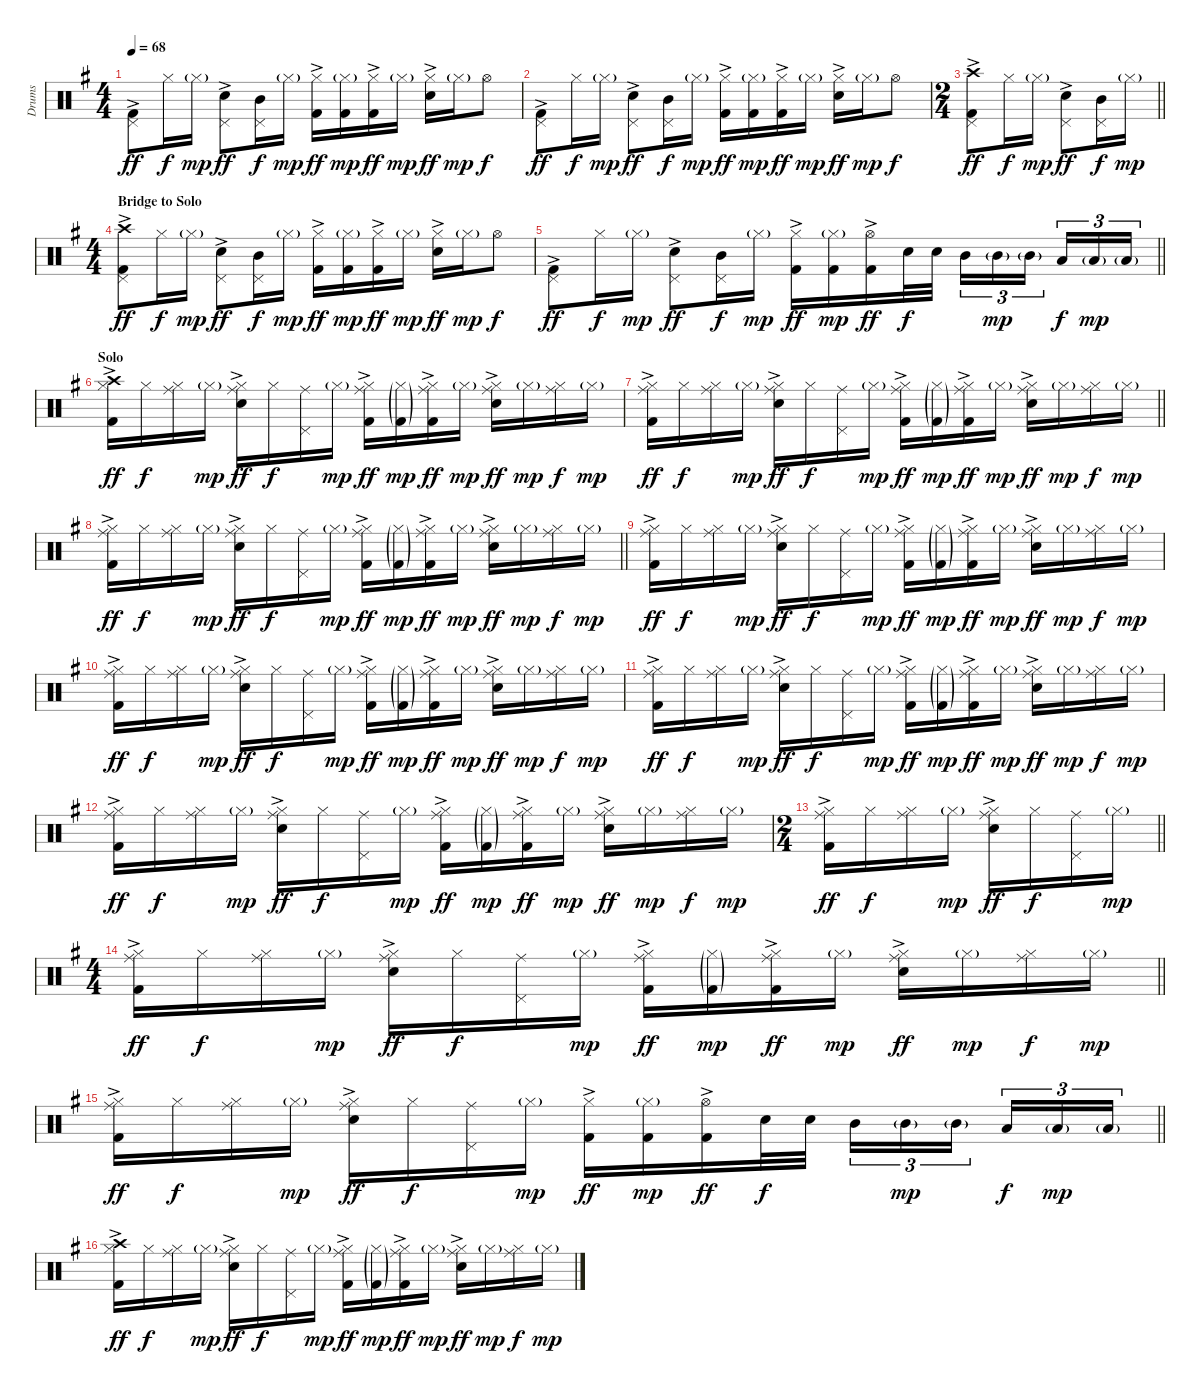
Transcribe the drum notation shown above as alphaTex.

\track ("Drums" "Drums") {instrument percussion}
\staff {score}
\articulation defaults
\ts (4 4)
\tempo 68
\clef neutral
\ks g
("Pedal Hi-Hat (hit)" "Kick (hit) 2"{ac}).8{dy ff} "Hi-Hat (closed)".16{dy f} "Hi-Hat (closed)"{g}.16{dy mp} ("Pedal Hi-Hat (hit)" "Snare (hit) 2"{ac}).8{dy ff} ("Pedal Hi-Hat (hit)" "Mid Tom (hit)").16{dy f} "Hi-Hat (closed)"{g}.16{dy mp} ("Hi-Hat (closed)" "Kick (hit) 2"{ac}).16{dy ff} ("Hi-Hat (closed)"{g} "Kick (hit) 2").16{dy mp} ("Hi-Hat (closed)" "Kick (hit) 2"{ac}).16{dy ff} "Hi-Hat (closed)"{g}.16{dy mp} ("Hi-Hat (closed)" "Snare (hit) 2"{ac}).16{dy ff} "Hi-Hat (closed)"{g}.16{dy mp} "Hi-Hat (open)".8{dy f} |
("Pedal Hi-Hat (hit)" "Kick (hit) 2"{ac}).8{dy ff} "Hi-Hat (closed)".16{dy f} "Hi-Hat (closed)"{g}.16{dy mp} ("Pedal Hi-Hat (hit)" "Snare (hit) 2"{ac}).8{dy ff} ("Pedal Hi-Hat (hit)" "Mid Tom (hit)").16{dy f} "Hi-Hat (closed)"{g}.16{dy mp} ("Hi-Hat (closed)" "Kick (hit) 2"{ac}).16{dy ff} ("Hi-Hat (closed)"{g} "Kick (hit) 2").16{dy mp} ("Hi-Hat (closed)" "Kick (hit) 2"{ac}).16{dy ff} "Hi-Hat (closed)"{g}.16{dy mp} ("Hi-Hat (closed)" "Snare (hit) 2"{ac}).16{dy ff} "Hi-Hat (closed)"{g}.16{dy mp} "Hi-Hat (open)".8{dy f} |
\ts (2 4)
\barLineRight lightlight
("Pedal Hi-Hat (hit)" "Crash high (hit)" "Kick (hit) 2"{ac}).8{dy ff} "Hi-Hat (closed)".16{dy f} "Hi-Hat (closed)"{g}.16{dy mp} ("Pedal Hi-Hat (hit)" "Snare (hit) 2"{ac}).8{dy ff} ("Pedal Hi-Hat (hit)" "Mid Tom (hit)").16{dy f} "Hi-Hat (closed)"{g}.16{dy mp} |
\ts (4 4)
\section ("" "Bridge to Solo")
("Pedal Hi-Hat (hit)" "Crash high (hit)" "Kick (hit) 2"{ac}).8{dy ff} "Hi-Hat (closed)".16{dy f} "Hi-Hat (closed)"{g}.16{dy mp} ("Pedal Hi-Hat (hit)" "Snare (hit) 2"{ac}).8{dy ff} ("Pedal Hi-Hat (hit)" "Mid Tom (hit)").16{dy f} "Hi-Hat (closed)"{g}.16{dy mp} ("Hi-Hat (closed)" "Kick (hit) 2"{ac}).16{dy ff} ("Hi-Hat (closed)"{g} "Kick (hit) 2").16{dy mp} ("Hi-Hat (closed)" "Kick (hit) 2"{ac}).16{dy ff} "Hi-Hat (closed)"{g}.16{dy mp} ("Hi-Hat (closed)" "Snare (hit) 2"{ac}).16{dy ff} "Hi-Hat (closed)"{g}.16{dy mp} "Hi-Hat (open)".8{dy f} |
\barLineRight lightlight
("Pedal Hi-Hat (hit)" "Kick (hit) 2"{ac}).8{dy ff} "Hi-Hat (closed)".16{dy f} "Hi-Hat (closed)"{g}.16{dy mp} ("Pedal Hi-Hat (hit)" "Snare (hit) 2"{ac}).8{dy ff} ("Pedal Hi-Hat (hit)" "Mid Tom (hit)").16{dy f} "Hi-Hat (closed)"{g}.16{dy mp} ("Hi-Hat (closed)" "Kick (hit) 2"{ac}).16{dy ff} ("Hi-Hat (closed)"{g} "Kick (hit) 2").16{dy mp} ("Hi-Hat (open)" "Kick (hit) 2"{ac}).16{dy ff} "Snare (hit) 2".32{dy f} "Snare (hit) 2".32 "Mid Tom (hit)".16{tu (3 2)} "Mid Tom (hit)"{g}.16{tu (3 2) dy mp} "Mid Tom (hit)"{g}.16{tu (3 2) beam splitsecondary} "Low Tom (hit)".16{tu (3 2) dy f} "Low Tom (hit)"{g}.16{tu (3 2) dy mp} "Low Floor Tom (hit)"{g}.16{tu (3 2)} |
\section ("" "Solo")
("Hi-Hat (closed)" "Crash high (hit)" "Kick (hit) 2"{ac}).16{dy ff} "Hi-Hat (closed)".16{dy f} ("Hi-Hat (closed)" "Ride (middle)").16 "Hi-Hat (closed)"{g}.16{dy mp} ("Hi-Hat (closed)" "Ride (middle)" "Snare (hit) 2"{ac}).16{dy ff} "Hi-Hat (closed)".16{dy f} ("Pedal Hi-Hat (hit)" "Ride (middle)").16 "Hi-Hat (closed)"{g}.16{dy mp} ("Hi-Hat (closed)" "Ride (middle)" "Kick (hit) 2"{ac}).16{dy ff} ("Hi-Hat (closed)"{g} "Kick (hit) 2"{g}).16{dy mp} ("Hi-Hat (closed)" "Ride (middle)" "Kick (hit) 2"{ac}).16{dy ff} "Hi-Hat (closed)"{g}.16{dy mp} ("Hi-Hat (closed)" "Ride (middle)" "Snare (hit) 2"{ac}).16{dy ff} "Hi-Hat (closed)"{g}.16{dy mp} ("Hi-Hat (closed)" "Ride (middle)").16{dy f} "Hi-Hat (closed)"{g}.16{dy mp} |
\barLineRight lightlight
("Hi-Hat (closed)" "Ride (middle)" "Kick (hit) 2"{ac}).16{dy ff} "Hi-Hat (closed)".16{dy f} ("Hi-Hat (closed)" "Ride (middle)").16 "Hi-Hat (closed)"{g}.16{dy mp} ("Hi-Hat (closed)" "Ride (middle)" "Snare (hit) 2"{ac}).16{dy ff} "Hi-Hat (closed)".16{dy f} ("Pedal Hi-Hat (hit)" "Ride (middle)").16 "Hi-Hat (closed)"{g}.16{dy mp} ("Hi-Hat (closed)" "Ride (middle)" "Kick (hit) 2"{ac}).16{dy ff} ("Hi-Hat (closed)"{g} "Kick (hit) 2"{g}).16{dy mp} ("Hi-Hat (closed)" "Ride (middle)" "Kick (hit) 2"{ac}).16{dy ff} "Hi-Hat (closed)"{g}.16{dy mp} ("Hi-Hat (closed)" "Ride (middle)" "Snare (hit) 2"{ac}).16{dy ff} "Hi-Hat (closed)"{g}.16{dy mp} ("Hi-Hat (closed)" "Ride (middle)").16{dy f} "Hi-Hat (closed)"{g}.16{dy mp} |
\section ("" "")
\barLineRight lightlight
("Hi-Hat (closed)" "Ride (middle)" "Kick (hit) 2"{ac}).16{dy ff} "Hi-Hat (closed)".16{dy f} ("Hi-Hat (closed)" "Ride (middle)").16 "Hi-Hat (closed)"{g}.16{dy mp} ("Hi-Hat (closed)" "Ride (middle)" "Snare (hit) 2"{ac}).16{dy ff} "Hi-Hat (closed)".16{dy f} ("Pedal Hi-Hat (hit)" "Ride (middle)").16 "Hi-Hat (closed)"{g}.16{dy mp} ("Hi-Hat (closed)" "Ride (middle)" "Kick (hit) 2"{ac}).16{dy ff} ("Hi-Hat (closed)"{g} "Kick (hit) 2"{g}).16{dy mp} ("Hi-Hat (closed)" "Ride (middle)" "Kick (hit) 2"{ac}).16{dy ff} "Hi-Hat (closed)"{g}.16{dy mp} ("Hi-Hat (closed)" "Ride (middle)" "Snare (hit) 2"{ac}).16{dy ff} "Hi-Hat (closed)"{g}.16{dy mp} ("Hi-Hat (closed)" "Ride (middle)").16{dy f} "Hi-Hat (closed)"{g}.16{dy mp} |
\section ("" "")
("Hi-Hat (closed)" "Ride (middle)" "Kick (hit) 2"{ac}).16{dy ff} "Hi-Hat (closed)".16{dy f} ("Hi-Hat (closed)" "Ride (middle)").16 "Hi-Hat (closed)"{g}.16{dy mp} ("Hi-Hat (closed)" "Ride (middle)" "Snare (hit) 2"{ac}).16{dy ff} "Hi-Hat (closed)".16{dy f} ("Pedal Hi-Hat (hit)" "Ride (middle)").16 "Hi-Hat (closed)"{g}.16{dy mp} ("Hi-Hat (closed)" "Ride (middle)" "Kick (hit) 2"{ac}).16{dy ff} ("Hi-Hat (closed)"{g} "Kick (hit) 2"{g}).16{dy mp} ("Hi-Hat (closed)" "Ride (middle)" "Kick (hit) 2"{ac}).16{dy ff} "Hi-Hat (closed)"{g}.16{dy mp} ("Hi-Hat (closed)" "Ride (middle)" "Snare (hit) 2"{ac}).16{dy ff} "Hi-Hat (closed)"{g}.16{dy mp} ("Hi-Hat (closed)" "Ride (middle)").16{dy f} "Hi-Hat (closed)"{g}.16{dy mp} |
("Hi-Hat (closed)" "Ride (middle)" "Kick (hit) 2"{ac}).16{dy ff} "Hi-Hat (closed)".16{dy f} ("Hi-Hat (closed)" "Ride (middle)").16 "Hi-Hat (closed)"{g}.16{dy mp} ("Hi-Hat (closed)" "Ride (middle)" "Snare (hit) 2"{ac}).16{dy ff} "Hi-Hat (closed)".16{dy f} ("Pedal Hi-Hat (hit)" "Ride (middle)").16 "Hi-Hat (closed)"{g}.16{dy mp} ("Hi-Hat (closed)" "Ride (middle)" "Kick (hit) 2"{ac}).16{dy ff} ("Hi-Hat (closed)"{g} "Kick (hit) 2"{g}).16{dy mp} ("Hi-Hat (closed)" "Ride (middle)" "Kick (hit) 2"{ac}).16{dy ff} "Hi-Hat (closed)"{g}.16{dy mp} ("Hi-Hat (closed)" "Ride (middle)" "Snare (hit) 2"{ac}).16{dy ff} "Hi-Hat (closed)"{g}.16{dy mp} ("Hi-Hat (closed)" "Ride (middle)").16{dy f} "Hi-Hat (closed)"{g}.16{dy mp} |
("Hi-Hat (closed)" "Ride (middle)" "Kick (hit) 2"{ac}).16{dy ff} "Hi-Hat (closed)".16{dy f} ("Hi-Hat (closed)" "Ride (middle)").16 "Hi-Hat (closed)"{g}.16{dy mp} ("Hi-Hat (closed)" "Ride (middle)" "Snare (hit) 2"{ac}).16{dy ff} "Hi-Hat (closed)".16{dy f} ("Pedal Hi-Hat (hit)" "Ride (middle)").16 "Hi-Hat (closed)"{g}.16{dy mp} ("Hi-Hat (closed)" "Ride (middle)" "Kick (hit) 2"{ac}).16{dy ff} ("Hi-Hat (closed)"{g} "Kick (hit) 2"{g}).16{dy mp} ("Hi-Hat (closed)" "Ride (middle)" "Kick (hit) 2"{ac}).16{dy ff} "Hi-Hat (closed)"{g}.16{dy mp} ("Hi-Hat (closed)" "Ride (middle)" "Snare (hit) 2"{ac}).16{dy ff} "Hi-Hat (closed)"{g}.16{dy mp} ("Hi-Hat (closed)" "Ride (middle)").16{dy f} "Hi-Hat (closed)"{g}.16{dy mp} |
("Hi-Hat (closed)" "Ride (middle)" "Kick (hit) 2"{ac}).16{dy ff} "Hi-Hat (closed)".16{dy f} ("Hi-Hat (closed)" "Ride (middle)").16 "Hi-Hat (closed)"{g}.16{dy mp} ("Hi-Hat (closed)" "Ride (middle)" "Snare (hit) 2"{ac}).16{dy ff} "Hi-Hat (closed)".16{dy f} ("Pedal Hi-Hat (hit)" "Ride (middle)").16 "Hi-Hat (closed)"{g}.16{dy mp} ("Hi-Hat (closed)" "Ride (middle)" "Kick (hit) 2"{ac}).16{dy ff} ("Hi-Hat (closed)"{g} "Kick (hit) 2"{g}).16{dy mp} ("Hi-Hat (closed)" "Ride (middle)" "Kick (hit) 2"{ac}).16{dy ff} "Hi-Hat (closed)"{g}.16{dy mp} ("Hi-Hat (closed)" "Ride (middle)" "Snare (hit) 2"{ac}).16{dy ff} "Hi-Hat (closed)"{g}.16{dy mp} ("Hi-Hat (closed)" "Ride (middle)").16{dy f} "Hi-Hat (closed)"{g}.16{dy mp} |
\ts (2 4)
\barLineRight lightlight
("Hi-Hat (closed)" "Ride (middle)" "Kick (hit) 2"{ac}).16{dy ff} "Hi-Hat (closed)".16{dy f} ("Hi-Hat (closed)" "Ride (middle)").16 "Hi-Hat (closed)"{g}.16{dy mp} ("Hi-Hat (closed)" "Ride (middle)" "Snare (hit) 2"{ac}).16{dy ff} "Hi-Hat (closed)".16{dy f} ("Pedal Hi-Hat (hit)" "Ride (middle)").16 "Hi-Hat (closed)"{g}.16{dy mp} |
\ts (4 4)
\section ("" "")
\barLineRight lightlight
("Hi-Hat (closed)" "Ride (middle)" "Kick (hit) 2"{ac}).16{dy ff} "Hi-Hat (closed)".16{dy f} ("Hi-Hat (closed)" "Ride (middle)").16 "Hi-Hat (closed)"{g}.16{dy mp} ("Hi-Hat (closed)" "Ride (middle)" "Snare (hit) 2"{ac}).16{dy ff} "Hi-Hat (closed)".16{dy f} ("Pedal Hi-Hat (hit)" "Ride (middle)").16 "Hi-Hat (closed)"{g}.16{dy mp} ("Hi-Hat (closed)" "Ride (middle)" "Kick (hit) 2"{ac}).16{dy ff} ("Hi-Hat (closed)"{g} "Kick (hit) 2"{g}).16{dy mp} ("Hi-Hat (closed)" "Ride (middle)" "Kick (hit) 2"{ac}).16{dy ff} "Hi-Hat (closed)"{g}.16{dy mp} ("Hi-Hat (closed)" "Ride (middle)" "Snare (hit) 2"{ac}).16{dy ff} "Hi-Hat (closed)"{g}.16{dy mp} ("Hi-Hat (closed)" "Ride (middle)").16{dy f} "Hi-Hat (closed)"{g}.16{dy mp} |
\section ("" "")
\barLineRight lightlight
("Hi-Hat (closed)" "Ride (middle)" "Kick (hit) 2"{ac}).16{dy ff} "Hi-Hat (closed)".16{dy f} ("Hi-Hat (closed)" "Ride (middle)").16 "Hi-Hat (closed)"{g}.16{dy mp} ("Hi-Hat (closed)" "Ride (middle)" "Snare (hit) 2"{ac}).16{dy ff} "Hi-Hat (closed)".16{dy f} ("Pedal Hi-Hat (hit)" "Ride (middle)").16 "Hi-Hat (closed)"{g}.16{dy mp} ("Hi-Hat (closed)" "Kick (hit) 2"{ac}).16{dy ff} ("Hi-Hat (closed)"{g} "Kick (hit) 2").16{dy mp} ("Hi-Hat (open)" "Kick (hit) 2"{ac}).16{dy ff} "Snare (hit) 2".32{dy f} "Snare (hit) 2".32 "Mid Tom (hit)".16{tu (3 2)} "Mid Tom (hit)"{g}.16{tu (3 2) dy mp} "Mid Tom (hit)"{g}.16{tu (3 2) beam splitsecondary} "Low Tom (hit)".16{tu (3 2) dy f} "Low Tom (hit)"{g}.16{tu (3 2) dy mp} "Low Floor Tom (hit)"{g}.16{tu (3 2)} |
\section ("" "")
("Hi-Hat (closed)" "Crash high (hit)" "Kick (hit) 2"{ac}).16{dy ff} "Hi-Hat (closed)".16{dy f} ("Hi-Hat (closed)" "Ride (middle)").16 "Hi-Hat (closed)"{g}.16{dy mp} ("Hi-Hat (closed)" "Ride (middle)" "Snare (hit) 2"{ac}).16{dy ff} "Hi-Hat (closed)".16{dy f} ("Pedal Hi-Hat (hit)" "Ride (middle)").16 "Hi-Hat (closed)"{g}.16{dy mp} ("Hi-Hat (closed)" "Ride (middle)" "Kick (hit) 2"{ac}).16{dy ff} ("Hi-Hat (closed)"{g} "Kick (hit) 2"{g}).16{dy mp} ("Hi-Hat (closed)" "Ride (middle)" "Kick (hit) 2"{ac}).16{dy ff} "Hi-Hat (closed)"{g}.16{dy mp} ("Hi-Hat (closed)" "Ride (middle)" "Snare (hit) 2"{ac}).16{dy ff} "Hi-Hat (closed)"{g}.16{dy mp} ("Hi-Hat (closed)" "Ride (middle)").16{dy f} "Hi-Hat (closed)"{g}.16{dy mp}
